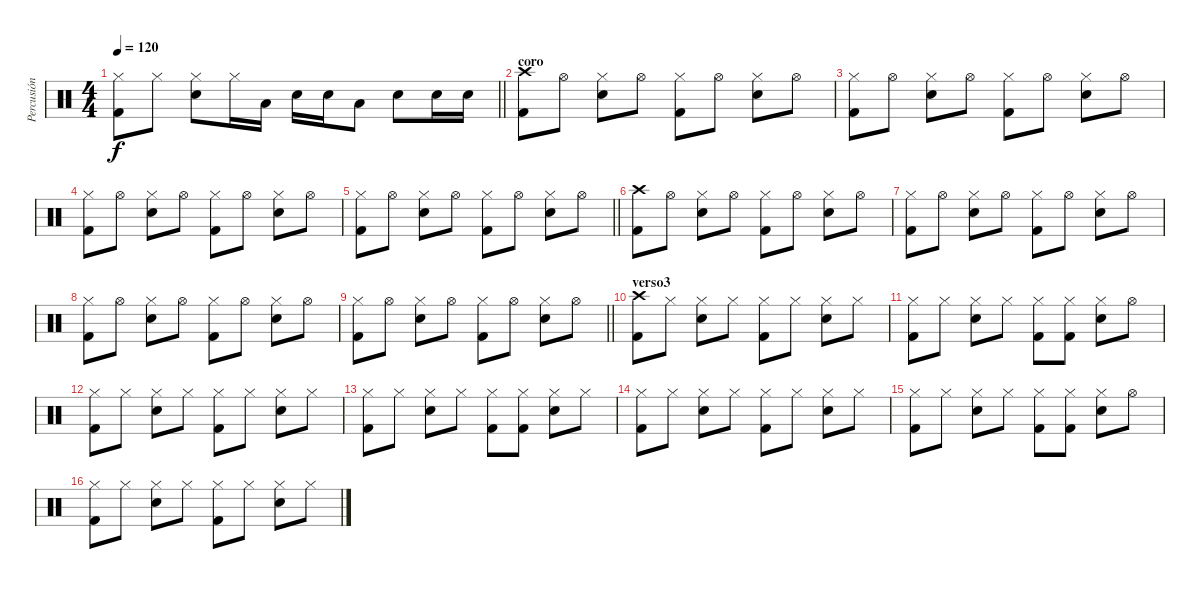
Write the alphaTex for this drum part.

\track ("Percusión" "Percusión") {instrument percussion}
\staff {score}
\articulation defaults
\ts (4 4)
\tempo 120
\clef neutral
\barLineRight lightlight
\ks c
("Hi-Hat (closed)" "Kick (hit) 2").8{dy f} "Hi-Hat (closed)".8 ("Hi-Hat (closed)" "Electric Snare (hit)").8 "Hi-Hat (closed)".16 "Low Tom (hit)".16 "Electric Snare (hit)".16 "Electric Snare (hit)".16 "Low Tom (hit)".8 "Electric Snare (hit)".8 "Electric Snare (hit)".16 "Electric Snare (hit)".16 |
\section ("" "coro")
("Crash high (hit)" "Kick (hit) 2").8 "Hi-Hat (open)".8 ("Hi-Hat (closed)" "Electric Snare (hit)").8 "Hi-Hat (open)".8 ("Hi-Hat (closed)" "Kick (hit) 2").8 "Hi-Hat (open)".8 ("Hi-Hat (closed)" "Electric Snare (hit)").8 "Hi-Hat (open)".8 |
("Hi-Hat (closed)" "Kick (hit) 2").8 "Hi-Hat (open)".8 ("Hi-Hat (closed)" "Electric Snare (hit)").8 "Hi-Hat (open)".8 ("Hi-Hat (closed)" "Kick (hit) 2").8 "Hi-Hat (open)".8 ("Hi-Hat (closed)" "Electric Snare (hit)").8 "Hi-Hat (open)".8 |
("Hi-Hat (closed)" "Kick (hit) 2").8 "Hi-Hat (open)".8 ("Hi-Hat (closed)" "Electric Snare (hit)").8 "Hi-Hat (open)".8 ("Hi-Hat (closed)" "Kick (hit) 2").8 "Hi-Hat (open)".8 ("Hi-Hat (closed)" "Electric Snare (hit)").8 "Hi-Hat (open)".8 |
\barLineRight lightlight
("Hi-Hat (closed)" "Kick (hit) 2").8 "Hi-Hat (open)".8 ("Hi-Hat (closed)" "Electric Snare (hit)").8 "Hi-Hat (open)".8 ("Hi-Hat (closed)" "Kick (hit) 2").8 "Hi-Hat (open)".8 ("Hi-Hat (closed)" "Electric Snare (hit)").8 "Hi-Hat (open)".8 |
("Crash high (hit)" "Kick (hit) 2").8 "Hi-Hat (open)".8 ("Hi-Hat (closed)" "Electric Snare (hit)").8 "Hi-Hat (open)".8 ("Hi-Hat (closed)" "Kick (hit) 2").8 "Hi-Hat (open)".8 ("Hi-Hat (closed)" "Electric Snare (hit)").8 "Hi-Hat (open)".8 |
("Hi-Hat (closed)" "Kick (hit) 2").8 "Hi-Hat (open)".8 ("Hi-Hat (closed)" "Electric Snare (hit)").8 "Hi-Hat (open)".8 ("Hi-Hat (closed)" "Kick (hit) 2").8 "Hi-Hat (open)".8 ("Hi-Hat (closed)" "Electric Snare (hit)").8 "Hi-Hat (open)".8 |
("Hi-Hat (closed)" "Kick (hit) 2").8 "Hi-Hat (open)".8 ("Hi-Hat (closed)" "Electric Snare (hit)").8 "Hi-Hat (open)".8 ("Hi-Hat (closed)" "Kick (hit) 2").8 "Hi-Hat (open)".8 ("Hi-Hat (closed)" "Electric Snare (hit)").8 "Hi-Hat (open)".8 |
\barLineRight lightlight
("Hi-Hat (closed)" "Kick (hit) 2").8 "Hi-Hat (open)".8 ("Hi-Hat (closed)" "Electric Snare (hit)").8 "Hi-Hat (open)".8 ("Hi-Hat (closed)" "Kick (hit) 2").8 "Hi-Hat (open)".8 ("Hi-Hat (closed)" "Electric Snare (hit)").8 "Hi-Hat (open)".8 |
\section ("" "verso3")
("Crash high (hit)" "Kick (hit) 2").8 "Hi-Hat (closed)".8 ("Hi-Hat (closed)" "Electric Snare (hit)").8 "Hi-Hat (closed)".8 ("Hi-Hat (closed)" "Kick (hit) 2").8 "Hi-Hat (closed)".8 ("Hi-Hat (closed)" "Electric Snare (hit)").8 "Hi-Hat (closed)".8 |
("Hi-Hat (closed)" "Kick (hit) 2").8 "Hi-Hat (closed)".8 ("Hi-Hat (closed)" "Electric Snare (hit)").8 "Hi-Hat (closed)".8 ("Hi-Hat (closed)" "Kick (hit) 2").8 ("Hi-Hat (closed)" "Kick (hit) 2").8 ("Hi-Hat (closed)" "Electric Snare (hit)").8 "Hi-Hat (open)".8 |
("Hi-Hat (closed)" "Kick (hit) 2").8 "Hi-Hat (closed)".8 ("Hi-Hat (closed)" "Electric Snare (hit)").8 "Hi-Hat (closed)".8 ("Hi-Hat (closed)" "Kick (hit) 2").8 "Hi-Hat (closed)".8 ("Hi-Hat (closed)" "Electric Snare (hit)").8 "Hi-Hat (closed)".8 |
("Hi-Hat (closed)" "Kick (hit) 2").8 "Hi-Hat (closed)".8 ("Hi-Hat (closed)" "Electric Snare (hit)").8 "Hi-Hat (closed)".8 ("Hi-Hat (closed)" "Kick (hit) 2").8 ("Hi-Hat (closed)" "Kick (hit) 2").8 ("Hi-Hat (closed)" "Electric Snare (hit)").8 "Hi-Hat (closed)".8 |
("Hi-Hat (closed)" "Kick (hit) 2").8 "Hi-Hat (closed)".8 ("Hi-Hat (closed)" "Electric Snare (hit)").8 "Hi-Hat (closed)".8 ("Hi-Hat (closed)" "Kick (hit) 2").8 "Hi-Hat (closed)".8 ("Hi-Hat (closed)" "Electric Snare (hit)").8 "Hi-Hat (closed)".8 |
("Hi-Hat (closed)" "Kick (hit) 2").8 "Hi-Hat (closed)".8 ("Hi-Hat (closed)" "Electric Snare (hit)").8 "Hi-Hat (closed)".8 ("Hi-Hat (closed)" "Kick (hit) 2").8 ("Hi-Hat (closed)" "Kick (hit) 2").8 ("Hi-Hat (closed)" "Electric Snare (hit)").8 "Hi-Hat (open)".8 |
("Hi-Hat (closed)" "Kick (hit) 2").8 "Hi-Hat (closed)".8 ("Hi-Hat (closed)" "Electric Snare (hit)").8 "Hi-Hat (closed)".8 ("Hi-Hat (closed)" "Kick (hit) 2").8 "Hi-Hat (closed)".8 ("Hi-Hat (closed)" "Electric Snare (hit)").8 "Hi-Hat (closed)".8
